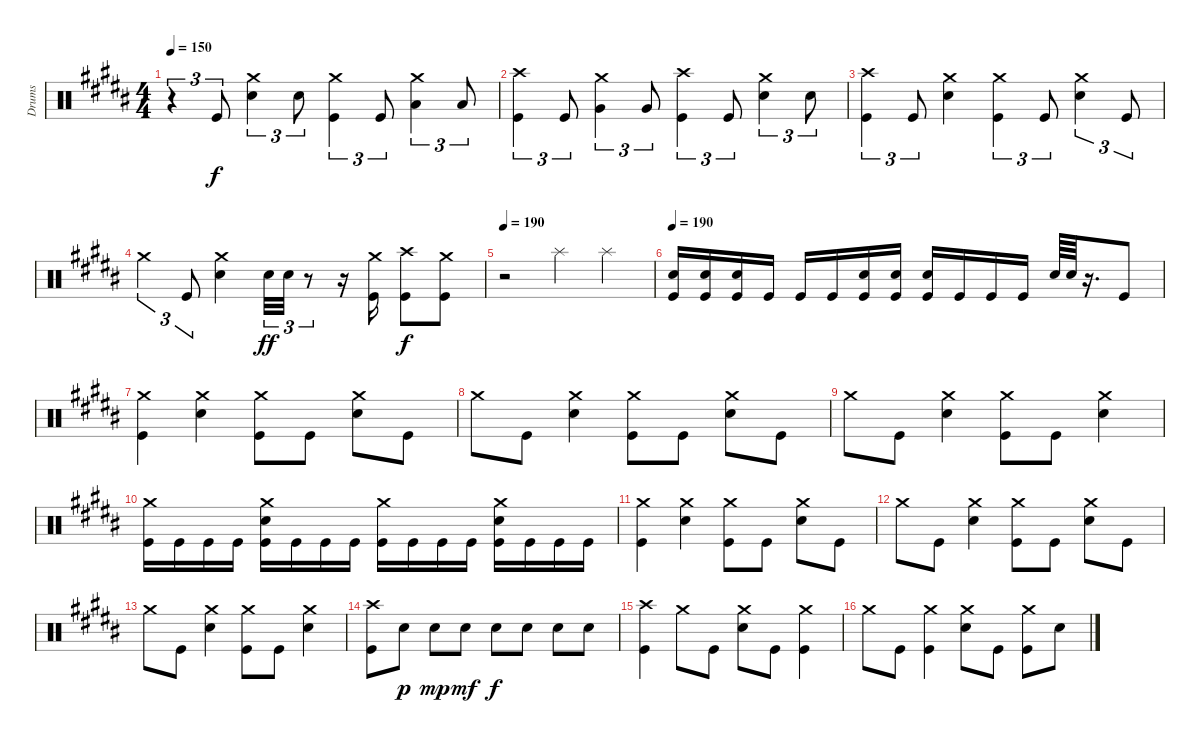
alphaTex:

\track ("Drums" "Drums") {instrument percussion}
\staff {score}
\articulation defaults
\ts (4 4)
\tempo 150
\clef neutral
\ks b
r.4{tu (3 2) dy f} "Kick (hit)".8{tu (3 2)} ("Snare (hit) 2" "Crash medium (hit)").4{tu (3 2)} "Snare (hit) 2".8{tu (3 2)} ("Crash medium (hit)" "Kick (hit)").4{tu (3 2)} "Kick (hit)".8{tu (3 2)} ("Crash medium (hit)" "Low Tom (hit)").4{tu (3 2)} "Low Tom (hit)".8{tu (3 2)} |
\ks g#minor
("Crash high (hit)" "Kick (hit)").4{tu (3 2)} "Kick (hit)".8{tu (3 2)} ("Very Low Tom (hit)" "Crash medium (hit)").4{tu (3 2)} "Very Low Tom (hit)".8{tu (3 2)} ("Crash high (hit)" "Kick (hit)").4{tu (3 2)} "Kick (hit)".8{tu (3 2)} ("Snare (hit) 2" "Crash medium (hit)").4{tu (3 2)} "Snare (hit) 2".8{tu (3 2)} |
("Crash high (hit)" "Kick (hit)").4{tu (3 2)} "Kick (hit)".8{tu (3 2)} ("Snare (hit) 2" "Crash medium (hit)").4 ("Crash medium (hit)" "Kick (hit)").4{tu (3 2)} "Kick (hit)".8{tu (3 2)} ("Snare (hit) 2" "Crash medium (hit)").4{tu (3 2)} "Kick (hit)".8{tu (3 2)} |
"Crash medium (hit)".4{tu (3 2)} "Kick (hit)".8{tu (3 2)} ("Snare (hit) 2" "Crash medium (hit)").4 "Snare (hit) 2".32{tu (3 2) dy ff} "Snare (hit) 2".32{tu (3 2)} r.8{tu (3 2)} r.16 ("Kick (hit)" "Crash medium (hit)").16 ("Crash high (hit)" "Kick (hit)").8{dy f} ("Crash medium (hit)" "Kick (hit)").8 |
\tempo 190
r.2 "Splash (hit)".4 "Splash (hit)".4 |
\tempo 190
("Snare (hit) 2" "Kick (hit)").16 ("Snare (hit) 2" "Kick (hit)").16 ("Snare (hit) 2" "Kick (hit)").16 "Kick (hit)".16 "Kick (hit)".16 "Kick (hit)".16 ("Kick (hit)" "Snare (hit) 2").16 ("Kick (hit)" "Snare (hit) 2").16 ("Kick (hit)" "Snare (hit) 2").16 "Kick (hit)".16 "Kick (hit)".16 "Kick (hit)".16 "Snare (hit) 2".64 "Snare (hit) 2".64 r.16{d} "Kick (hit)".8 |
\ks b
("Crash medium (hit)" "Kick (hit)").4 ("Crash medium (hit)" "Snare (hit) 2").4 ("Crash medium (hit)" "Kick (hit)").8 "Kick (hit)".8 ("Crash medium (hit)" "Snare (hit) 2").8 "Kick (hit)".8 |
\ks g#minor "Crash medium (hit)".8 "Kick (hit)".8
("Crash medium (hit)" "Snare (hit) 2").4 ("Crash medium (hit)" "Kick (hit)").8 "Kick (hit)".8 ("Crash medium (hit)" "Snare (hit) 2").8 "Kick (hit)".8 |
"Crash medium (hit)".8 "Kick (hit)".8 ("Crash medium (hit)" "Snare (hit) 2").4 ("Crash medium (hit)" "Kick (hit)").8 "Kick (hit)".8 ("Crash medium (hit)" "Snare (hit) 2").4 |
("Kick (hit)" "Crash medium (hit)").16 "Kick (hit)".16 "Kick (hit)".16 "Kick (hit)".16 ("Kick (hit)" "Crash medium (hit)" "Snare (hit) 2").16 "Kick (hit)".16 "Kick (hit)".16 "Kick (hit)".16 ("Kick (hit)" "Crash medium (hit)").16 "Kick (hit)".16 "Kick (hit)".16 "Kick (hit)".16 ("Kick (hit)" "Crash medium (hit)" "Snare (hit) 2").16 "Kick (hit)".16 "Kick (hit)".16 "Kick (hit)".16 |
\ks b
("Crash medium (hit)" "Kick (hit)").4 ("Crash medium (hit)" "Snare (hit) 2").4 ("Crash medium (hit)" "Kick (hit)").8 "Kick (hit)".8 ("Crash medium (hit)" "Snare (hit) 2").8 "Kick (hit)".8 |
\ks g#minor "Crash medium (hit)".8 "Kick (hit)".8
("Crash medium (hit)" "Snare (hit) 2").4 ("Crash medium (hit)" "Kick (hit)").8 "Kick (hit)".8 ("Crash medium (hit)" "Snare (hit) 2").8 "Kick (hit)".8 |
"Crash medium (hit)".8 "Kick (hit)".8 ("Crash medium (hit)" "Snare (hit) 2").4 ("Crash medium (hit)" "Kick (hit)").8 "Kick (hit)".8 ("Crash medium (hit)" "Snare (hit) 2").4 |
("Crash high (hit)" "Kick (hit)").8 "Snare (hit) 2".8{dy p} "Snare (hit) 2".8{dy mp} "Snare (hit) 2".8{dy mf} "Snare (hit) 2".8{dy f} "Snare (hit) 2".8 "Snare (hit) 2".8 "Snare (hit) 2".8 |
\ks b
("Kick (hit)" "Crash high (hit)").4 "Crash medium (hit)".8 "Kick (hit)".8 ("Snare (hit) 2" "Crash medium (hit)").8 "Kick (hit)".8 ("Kick (hit)" "Crash medium (hit)").4 |
\ks g#minor "Crash medium (hit)".8 "Kick (hit)".8
("Crash medium (hit)" "Kick (hit)").4 ("Snare (hit) 2" "Crash medium (hit)").8 "Kick (hit)".8 ("Kick (hit)" "Crash medium (hit)").8 "Snare (hit) 2".8
